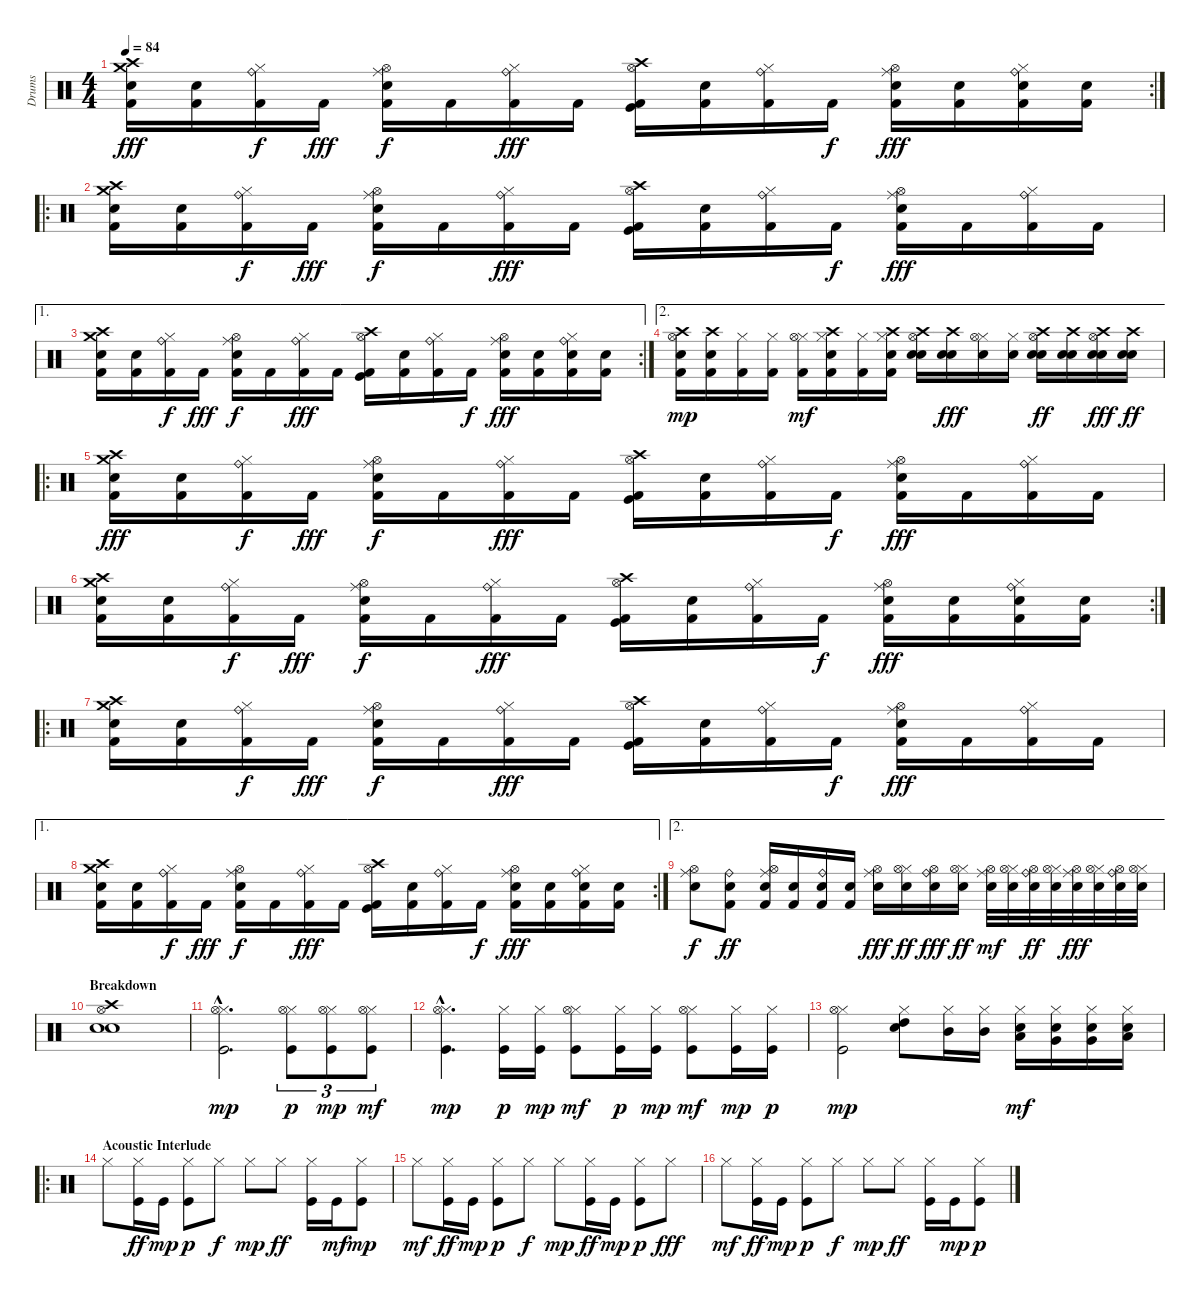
\track ("Drums" "Drums") {instrument percussion}
\staff {score}
\articulation defaults
\rc 2
\ts (4 4)
\tempo 84
\clef neutral
\ks c
("Crash high (hit)" "Crash medium (hit)" "Kick (hit) 2" "Snare (hit) 2").16{dy fff} ("Metronome (bell)" "Kick (hit) 2").16 ("Hi-Hat (closed)" "Ride (bell)" "Kick (hit) 2").16{dy f} "Kick (hit) 2".16{dy fff} ("Hi-Hat (open)" "Ride (middle)" "Kick (hit) 2" "Snare (hit) 2").16{dy f} "Kick (hit) 2".16 ("Hi-Hat (closed)" "Ride (bell)" "Kick (hit) 2").16{dy fff} "Kick (hit) 2".16 ("Crash high (hit)" "Hi-Hat (open)" "Kick (hit) 2" "Kick (hit)").16 ("Metronome (bell)" "Kick (hit) 2").16 ("Hi-Hat (closed)" "Ride (bell)" "Kick (hit) 2").16 "Kick (hit) 2".16{dy f} ("Hi-Hat (open)" "Ride (middle)" "Kick (hit) 2" "Snare (hit) 2").16{dy fff} ("Electric Snare (hit)" "Kick (hit) 2").16 ("Hi-Hat (closed)" "Ride (bell)" "Electric Snare (hit)" "Kick (hit) 2").16 ("Electric Snare (hit)" "Kick (hit) 2").16 |
\ro
("Crash high (hit)" "Crash medium (hit)" "Kick (hit) 2" "Snare (hit) 2").16 ("Metronome (bell)" "Kick (hit) 2").16 ("Hi-Hat (closed)" "Ride (bell)" "Kick (hit) 2").16{dy f} "Kick (hit) 2".16{dy fff} ("Hi-Hat (open)" "Ride (middle)" "Kick (hit) 2" "Snare (hit) 2").16{dy f} "Kick (hit) 2".16 ("Hi-Hat (closed)" "Ride (bell)" "Kick (hit) 2").16{dy fff} "Kick (hit) 2".16 ("Crash high (hit)" "Hi-Hat (open)" "Kick (hit) 2" "Kick (hit)").16 ("Metronome (bell)" "Kick (hit) 2").16 ("Hi-Hat (closed)" "Ride (bell)" "Kick (hit) 2").16 "Kick (hit) 2".16{dy f} ("Hi-Hat (open)" "Ride (middle)" "Kick (hit) 2" "Snare (hit) 2").16{dy fff} "Kick (hit) 2".16 ("Hi-Hat (closed)" "Ride (bell)" "Kick (hit) 2").16 "Kick (hit) 2".16 |
\ae 1
\rc 2
("Crash high (hit)" "Crash medium (hit)" "Kick (hit) 2" "Snare (hit) 2").16 ("Metronome (bell)" "Kick (hit) 2").16 ("Hi-Hat (closed)" "Ride (bell)" "Kick (hit) 2").16{dy f} "Kick (hit) 2".16{dy fff} ("Hi-Hat (open)" "Ride (middle)" "Kick (hit) 2" "Snare (hit) 2").16{dy f} "Kick (hit) 2".16 ("Hi-Hat (closed)" "Ride (bell)" "Kick (hit) 2").16{dy fff} "Kick (hit) 2".16 ("Crash high (hit)" "Hi-Hat (open)" "Kick (hit) 2" "Kick (hit)").16 ("Metronome (bell)" "Kick (hit) 2").16 ("Hi-Hat (closed)" "Ride (bell)" "Kick (hit) 2").16 "Kick (hit) 2".16{dy f} ("Hi-Hat (open)" "Ride (middle)" "Kick (hit) 2" "Snare (hit) 2").16{dy fff} ("Electric Snare (hit)" "Kick (hit) 2").16 ("Hi-Hat (closed)" "Ride (bell)" "Electric Snare (hit)" "Kick (hit) 2").16 ("Electric Snare (hit)" "Kick (hit) 2").16 |
\ae 2
("Crash high (hit)" "Electric Snare (hit)" "Kick (hit) 2" "Hi-Hat (open)").16{dy mp} ("Crash high (hit)" "Electric Snare (hit)" "Kick (hit) 2").16 ("Hi-Hat (closed)" "Kick (hit) 2").16 ("Hi-Hat (closed)" "Kick (hit) 2").16 ("Hi-Hat (closed)" "Kick (hit) 2" "Hi-Hat (open)").16{dy mf} ("Hi-Hat (closed)" "Crash high (hit)" "Electric Snare (hit)" "Kick (hit) 2").16 ("Hi-Hat (closed)" "Kick (hit) 2").16 ("Hi-Hat (closed)" "Crash high (hit)" "Electric Snare (hit)" "Kick (hit) 2").16 ("Crash high (hit)" "Electric Snare (hit)" "Snare (hit) 2" "Hi-Hat (open)").16 ("Crash high (hit)" "Electric Snare (hit)" "Snare (hit) 2").16{dy fff} ("Hi-Hat (closed)" "Snare (hit) 2" "Hi-Hat (open)").16 ("Hi-Hat (closed)" "Snare (hit) 2").16 ("Crash high (hit)" "Electric Snare (hit)" "Snare (hit) 2" "Hi-Hat (open)").16{dy ff} ("Crash high (hit)" "Electric Snare (hit)" "Snare (hit) 2").16 ("Crash high (hit)" "Electric Snare (hit)" "Snare (hit) 2" "Hi-Hat (open)").16{dy fff} ("Crash high (hit)" "Electric Snare (hit)" "Snare (hit) 2").16{dy ff} |
\ro
("Crash high (hit)" "Crash medium (hit)" "Kick (hit) 2" "Snare (hit) 2").16{dy fff} ("Metronome (bell)" "Kick (hit) 2").16 ("Hi-Hat (closed)" "Ride (bell)" "Kick (hit) 2").16{dy f} "Kick (hit) 2".16{dy fff} ("Hi-Hat (open)" "Ride (middle)" "Kick (hit) 2" "Snare (hit) 2").16{dy f} "Kick (hit) 2".16 ("Hi-Hat (closed)" "Ride (bell)" "Kick (hit) 2").16{dy fff} "Kick (hit) 2".16 ("Crash high (hit)" "Hi-Hat (open)" "Kick (hit) 2" "Kick (hit)").16 ("Metronome (bell)" "Kick (hit) 2").16 ("Hi-Hat (closed)" "Ride (bell)" "Kick (hit) 2").16 "Kick (hit) 2".16{dy f} ("Hi-Hat (open)" "Ride (middle)" "Kick (hit) 2" "Snare (hit) 2").16{dy fff} "Kick (hit) 2".16 ("Hi-Hat (closed)" "Ride (bell)" "Kick (hit) 2").16 "Kick (hit) 2".16 |
\rc 2
("Crash high (hit)" "Crash medium (hit)" "Kick (hit) 2" "Snare (hit) 2").16 ("Metronome (bell)" "Kick (hit) 2").16 ("Hi-Hat (closed)" "Ride (bell)" "Kick (hit) 2").16{dy f} "Kick (hit) 2".16{dy fff} ("Hi-Hat (open)" "Ride (middle)" "Kick (hit) 2" "Snare (hit) 2").16{dy f} "Kick (hit) 2".16 ("Hi-Hat (closed)" "Ride (bell)" "Kick (hit) 2").16{dy fff} "Kick (hit) 2".16 ("Crash high (hit)" "Hi-Hat (open)" "Kick (hit) 2" "Kick (hit)").16 ("Metronome (bell)" "Kick (hit) 2").16 ("Hi-Hat (closed)" "Ride (bell)" "Kick (hit) 2").16 "Kick (hit) 2".16{dy f} ("Hi-Hat (open)" "Ride (middle)" "Kick (hit) 2" "Snare (hit) 2").16{dy fff} ("Electric Snare (hit)" "Kick (hit) 2").16 ("Hi-Hat (closed)" "Ride (bell)" "Electric Snare (hit)" "Kick (hit) 2").16 ("Electric Snare (hit)" "Kick (hit) 2").16 |
\ro
("Crash high (hit)" "Crash medium (hit)" "Kick (hit) 2" "Snare (hit) 2").16 ("Metronome (bell)" "Kick (hit) 2").16 ("Hi-Hat (closed)" "Ride (bell)" "Kick (hit) 2").16{dy f} "Kick (hit) 2".16{dy fff} ("Hi-Hat (open)" "Ride (middle)" "Kick (hit) 2" "Snare (hit) 2").16{dy f} "Kick (hit) 2".16 ("Hi-Hat (closed)" "Ride (bell)" "Kick (hit) 2").16{dy fff} "Kick (hit) 2".16 ("Crash high (hit)" "Hi-Hat (open)" "Kick (hit) 2" "Kick (hit)").16 ("Metronome (bell)" "Kick (hit) 2").16 ("Hi-Hat (closed)" "Ride (bell)" "Kick (hit) 2").16 "Kick (hit) 2".16{dy f} ("Hi-Hat (open)" "Ride (middle)" "Kick (hit) 2" "Snare (hit) 2").16{dy fff} "Kick (hit) 2".16 ("Hi-Hat (closed)" "Ride (bell)" "Kick (hit) 2").16 "Kick (hit) 2".16 |
\ae 1
\rc 2
("Crash high (hit)" "Crash medium (hit)" "Kick (hit) 2" "Snare (hit) 2").16 ("Metronome (bell)" "Kick (hit) 2").16 ("Hi-Hat (closed)" "Ride (bell)" "Kick (hit) 2").16{dy f} "Kick (hit) 2".16{dy fff} ("Hi-Hat (open)" "Ride (middle)" "Kick (hit) 2" "Snare (hit) 2").16{dy f} "Kick (hit) 2".16 ("Hi-Hat (closed)" "Ride (bell)" "Kick (hit) 2").16{dy fff} "Kick (hit) 2".16 ("Crash high (hit)" "Hi-Hat (open)" "Kick (hit) 2" "Kick (hit)").16 ("Metronome (bell)" "Kick (hit) 2").16 ("Hi-Hat (closed)" "Ride (bell)" "Kick (hit) 2").16 "Kick (hit) 2".16{dy f} ("Hi-Hat (open)" "Ride (middle)" "Kick (hit) 2" "Snare (hit) 2").16{dy fff} ("Electric Snare (hit)" "Kick (hit) 2").16 ("Hi-Hat (closed)" "Ride (bell)" "Electric Snare (hit)" "Kick (hit) 2").16 ("Electric Snare (hit)" "Kick (hit) 2").16 |
\ae 2
("Ride (middle)" "Electric Snare (hit)" "Hi-Hat (open)").8{dy f} ("Ride (bell)" "Electric Snare (hit)" "Kick (hit) 2").8{dy ff} ("Ride (middle)" "Electric Snare (hit)" "Kick (hit) 2" "Hi-Hat (open)").16 ("Snare (hit) 2" "Kick (hit) 2").16 ("Ride (bell)" "Electric Snare (hit)" "Kick (hit) 2").16 ("Snare (hit) 2" "Kick (hit) 2").16 ("Ride (middle)" "Electric Snare (hit)" "Hi-Hat (open)").16{dy fff} ("Hi-Hat (closed)" "Electric Snare (hit)" "Hi-Hat (open)").16{dy ff} ("Ride (bell)" "Electric Snare (hit)" "Hi-Hat (open)").16{dy fff} ("Hi-Hat (closed)" "Electric Snare (hit)" "Hi-Hat (open)").16{dy ff} ("Ride (middle)" "Electric Snare (hit)" "Hi-Hat (open)").32{dy mf} ("Hi-Hat (closed)" "Electric Snare (hit)" "Hi-Hat (open)").32 ("Ride (bell)" "Electric Snare (hit)" "Hi-Hat (open)").32{dy ff} ("Hi-Hat (closed)" "Electric Snare (hit)" "Hi-Hat (open)").32 ("Ride (middle)" "Electric Snare (hit)" "Hi-Hat (open)").32{dy fff} ("Hi-Hat (closed)" "Electric Snare (hit)" "Hi-Hat (open)").32 ("Ride (bell)" "Electric Snare (hit)" "Hi-Hat (open)").32 ("Hi-Hat (closed)" "Electric Snare (hit)" "Hi-Hat (open)").32 |
\section ("" "Breakdown")
("Crash high (hit)" "Hi-Hat (open)" "Electric Snare (hit)" "Snare (hit) 2").1 |
("Hi-Hat (closed)"{hac} "Hi-Hat (open)"{hac} "Kick (hit)"{hac}).2{d dy mp} ("Hi-Hat (closed)" "Hi-Hat (open)" "Kick (hit)").8{tu (3 2) dy p} ("Hi-Hat (closed)" "Hi-Hat (open)" "Kick (hit)").8{tu (3 2) dy mp} ("Hi-Hat (closed)" "Hi-Hat (open)" "Kick (hit)").8{tu (3 2) dy mf} |
("Hi-Hat (closed)"{hac} "Hi-Hat (open)"{hac} "Kick (hit)"{hac}).4{d dy mp} ("Hi-Hat (closed)" "Kick (hit)").16{dy p} ("Hi-Hat (closed)" "Kick (hit)").16{dy mp} ("Hi-Hat (closed)" "Hi-Hat (open)" "Kick (hit)").8{dy mf} ("Hi-Hat (closed)" "Kick (hit)").16{dy p} ("Hi-Hat (closed)" "Kick (hit)").16{dy mp} ("Hi-Hat (closed)" "Hi-Hat (open)" "Kick (hit)").8{dy mf} ("Hi-Hat (closed)" "Kick (hit)").16{dy mp} ("Hi-Hat (closed)" "Kick (hit)").16{dy p} |
("Hi-Hat (closed)" "Hi-Hat (open)" "Kick (hit)").2{dy mp} ("High Tom (hit)" "Hi-Hat (closed)" "Electric Snare (hit)").8 ("Mid Tom (hit)" "Hi-Hat (closed)").16 ("Mid Tom (hit)" "Hi-Hat (closed)").16 ("Low Tom (hit)" "Hi-Hat (closed)" "Electric Snare (hit)").16{dy mf} ("Very Low Tom (hit)" "Hi-Hat (closed)" "Electric Snare (hit)").16 ("Very Low Tom (hit)" "Hi-Hat (closed)" "Electric Snare (hit)").16 ("Low Floor Tom (hit)" "Hi-Hat (closed)" "Electric Snare (hit)").16 |
\ro
\section ("" "Acoustic Interlude")
"Hi-Hat (closed)".8 ("Hi-Hat (closed)" "Kick (hit)").16{dy ff} "Kick (hit)".16{dy mp} ("Hi-Hat (closed)" "Kick (hit)").8{dy p} "Hi-Hat (closed)".8{dy f} "Hi-Hat (closed)".8{dy mp} "Hi-Hat (closed)".8{dy ff} ("Hi-Hat (closed)" "Kick (hit)").16 "Kick (hit)".16{dy mf} ("Hi-Hat (closed)" "Kick (hit)").8{dy mp} |
"Hi-Hat (closed)".8{dy mf} ("Hi-Hat (closed)" "Kick (hit)").16{dy ff} "Kick (hit)".16{dy mp} ("Hi-Hat (closed)" "Kick (hit)").8{dy p} "Hi-Hat (closed)".8{dy f} "Hi-Hat (closed)".8{dy mp} ("Hi-Hat (closed)" "Kick (hit)").16{dy ff} "Kick (hit)".16{dy mp} ("Hi-Hat (closed)" "Kick (hit)").8{dy p} "Hi-Hat (closed)".8{dy fff} |
"Hi-Hat (closed)".8{dy mf} ("Hi-Hat (closed)" "Kick (hit)").16{dy ff} "Kick (hit)".16{dy mp} ("Hi-Hat (closed)" "Kick (hit)").8{dy p} "Hi-Hat (closed)".8{dy f} "Hi-Hat (closed)".8{dy mp} "Hi-Hat (closed)".8{dy ff} ("Hi-Hat (closed)" "Kick (hit)").16 "Kick (hit)".16{dy mp} ("Hi-Hat (closed)" "Kick (hit)").8{dy p}
